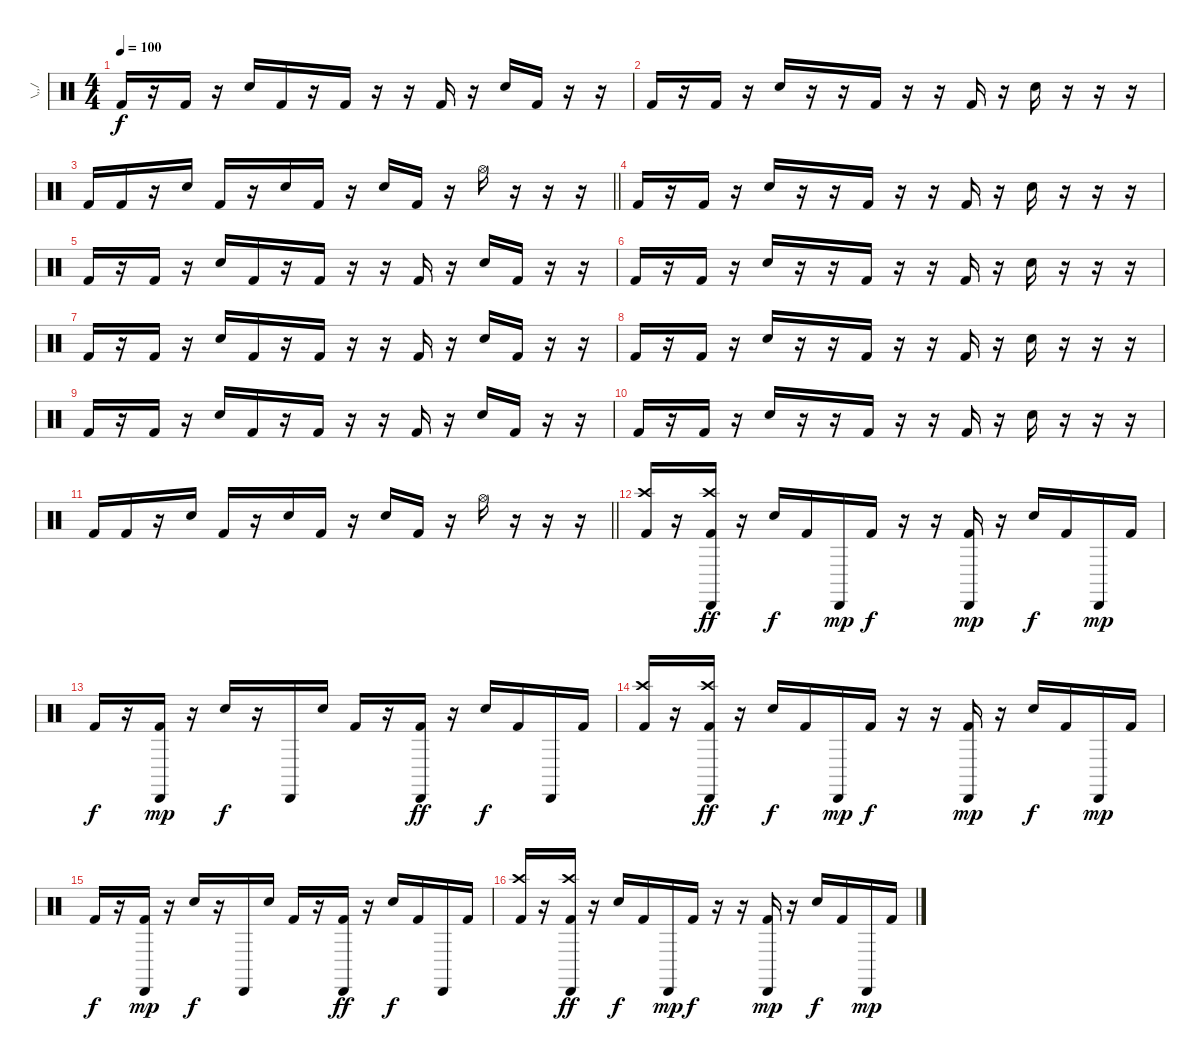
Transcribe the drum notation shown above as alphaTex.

\track ("\\,,/    " "\\,,/    ") {instrument percussion}
\staff {score}
\articulation defaults
\ts (4 4)
\tempo 100
\clef neutral
\ks c "Kick (hit) 2".16{dy f}
r.16 "Kick (hit) 2".16 r.16 "Electric Snare (hit)".16 "Kick (hit) 2".16 r.16 "Kick (hit) 2".16 r.16 r.16 "Kick (hit) 2".16 r.16 "Electric Snare (hit)".16 "Kick (hit) 2".16 r.16 r.16 |
"Kick (hit) 2".16 r.16 "Kick (hit) 2".16 r.16 "Electric Snare (hit)".16 r.16 r.16 "Kick (hit) 2".16 r.16 r.16 "Kick (hit) 2".16 r.16 "Electric Snare (hit)".16 r.16 r.16 r.16 |
\barLineRight lightlight "Kick (hit) 2".16 "Kick (hit) 2".16
r.16 "Electric Snare (hit)".16 "Kick (hit) 2".16 r.16 "Electric Snare (hit)".16 "Kick (hit) 2".16 r.16 "Electric Snare (hit)".16 "Kick (hit) 2".16 r.16 "Hi-Hat (open)".16 r.16 r.16 r.16 |
"Kick (hit) 2".16 r.16 "Kick (hit) 2".16 r.16 "Electric Snare (hit)".16 r.16 r.16 "Kick (hit) 2".16 r.16 r.16 "Kick (hit) 2".16 r.16 "Electric Snare (hit)".16 r.16 r.16 r.16 |
"Kick (hit) 2".16 r.16 "Kick (hit) 2".16 r.16 "Electric Snare (hit)".16 "Kick (hit) 2".16 r.16 "Kick (hit) 2".16 r.16 r.16 "Kick (hit) 2".16 r.16 "Electric Snare (hit)".16 "Kick (hit) 2".16 r.16 r.16 |
"Kick (hit) 2".16 r.16 "Kick (hit) 2".16 r.16 "Electric Snare (hit)".16 r.16 r.16 "Kick (hit) 2".16 r.16 r.16 "Kick (hit) 2".16 r.16 "Electric Snare (hit)".16 r.16 r.16 r.16 |
"Kick (hit) 2".16 r.16 "Kick (hit) 2".16 r.16 "Electric Snare (hit)".16 "Kick (hit) 2".16 r.16 "Kick (hit) 2".16 r.16 r.16 "Kick (hit) 2".16 r.16 "Electric Snare (hit)".16 "Kick (hit) 2".16 r.16 r.16 |
"Kick (hit) 2".16 r.16 "Kick (hit) 2".16 r.16 "Electric Snare (hit)".16 r.16 r.16 "Kick (hit) 2".16 r.16 r.16 "Kick (hit) 2".16 r.16 "Electric Snare (hit)".16 r.16 r.16 r.16 |
"Kick (hit) 2".16 r.16 "Kick (hit) 2".16 r.16 "Electric Snare (hit)".16 "Kick (hit) 2".16 r.16 "Kick (hit) 2".16 r.16 r.16 "Kick (hit) 2".16 r.16 "Electric Snare (hit)".16 "Kick (hit) 2".16 r.16 r.16 |
"Kick (hit) 2".16 r.16 "Kick (hit) 2".16 r.16 "Electric Snare (hit)".16 r.16 r.16 "Kick (hit) 2".16 r.16 r.16 "Kick (hit) 2".16 r.16 "Electric Snare (hit)".16 r.16 r.16 r.16 |
\barLineRight lightlight "Kick (hit) 2".16 "Kick (hit) 2".16
r.16 "Electric Snare (hit)".16 "Kick (hit) 2".16 r.16 "Electric Snare (hit)".16 "Kick (hit) 2".16 r.16 "Electric Snare (hit)".16 "Kick (hit) 2".16 r.16 "Hi-Hat (open)".16 r.16 r.16 r.16 |
("Crash high (hit)" "Kick (hit) 2").16 r.16 ("Cabasa (hit)" "Crash high (hit)" "Kick (hit) 2").16{dy ff} r.16 "Electric Snare (hit)".16{dy f} "Kick (hit) 2".16 "Cabasa (hit)".16{dy mp} "Kick (hit) 2".16{dy f} r.16 r.16 ("Cabasa (hit)" "Kick (hit) 2").16{dy mp} r.16 "Electric Snare (hit)".16{dy f} "Kick (hit) 2".16 "Cabasa (hit)".16{dy mp} "Kick (hit) 2".16 |
"Kick (hit) 2".16{dy f} r.16 ("Cabasa (hit)" "Kick (hit) 2").16{dy mp} r.16 "Electric Snare (hit)".16{dy f} r.16 "Cabasa (hit)".16 "Electric Snare (hit)".16 "Kick (hit) 2".16 r.16 ("Cabasa (hit)" "Kick (hit) 2").16{dy ff} r.16 "Electric Snare (hit)".16{dy f} "Kick (hit) 2".16 "Cabasa (hit)".16 "Kick (hit) 2".16 |
("Crash high (hit)" "Kick (hit) 2").16 r.16 ("Cabasa (hit)" "Crash high (hit)" "Kick (hit) 2").16{dy ff} r.16 "Electric Snare (hit)".16{dy f} "Kick (hit) 2".16 "Cabasa (hit)".16{dy mp} "Kick (hit) 2".16{dy f} r.16 r.16 ("Cabasa (hit)" "Kick (hit) 2").16{dy mp} r.16 "Electric Snare (hit)".16{dy f} "Kick (hit) 2".16 "Cabasa (hit)".16{dy mp} "Kick (hit) 2".16 |
"Kick (hit) 2".16{dy f} r.16 ("Cabasa (hit)" "Kick (hit) 2").16{dy mp} r.16 "Electric Snare (hit)".16{dy f} r.16 "Cabasa (hit)".16 "Electric Snare (hit)".16 "Kick (hit) 2".16 r.16 ("Cabasa (hit)" "Kick (hit) 2").16{dy ff} r.16 "Electric Snare (hit)".16{dy f} "Kick (hit) 2".16 "Cabasa (hit)".16 "Kick (hit) 2".16 |
("Crash high (hit)" "Kick (hit) 2").16 r.16 ("Cabasa (hit)" "Crash high (hit)" "Kick (hit) 2").16{dy ff} r.16 "Electric Snare (hit)".16{dy f} "Kick (hit) 2".16 "Cabasa (hit)".16{dy mp} "Kick (hit) 2".16{dy f} r.16 r.16 ("Cabasa (hit)" "Kick (hit) 2").16{dy mp} r.16 "Electric Snare (hit)".16{dy f} "Kick (hit) 2".16 "Cabasa (hit)".16{dy mp} "Kick (hit) 2".16
